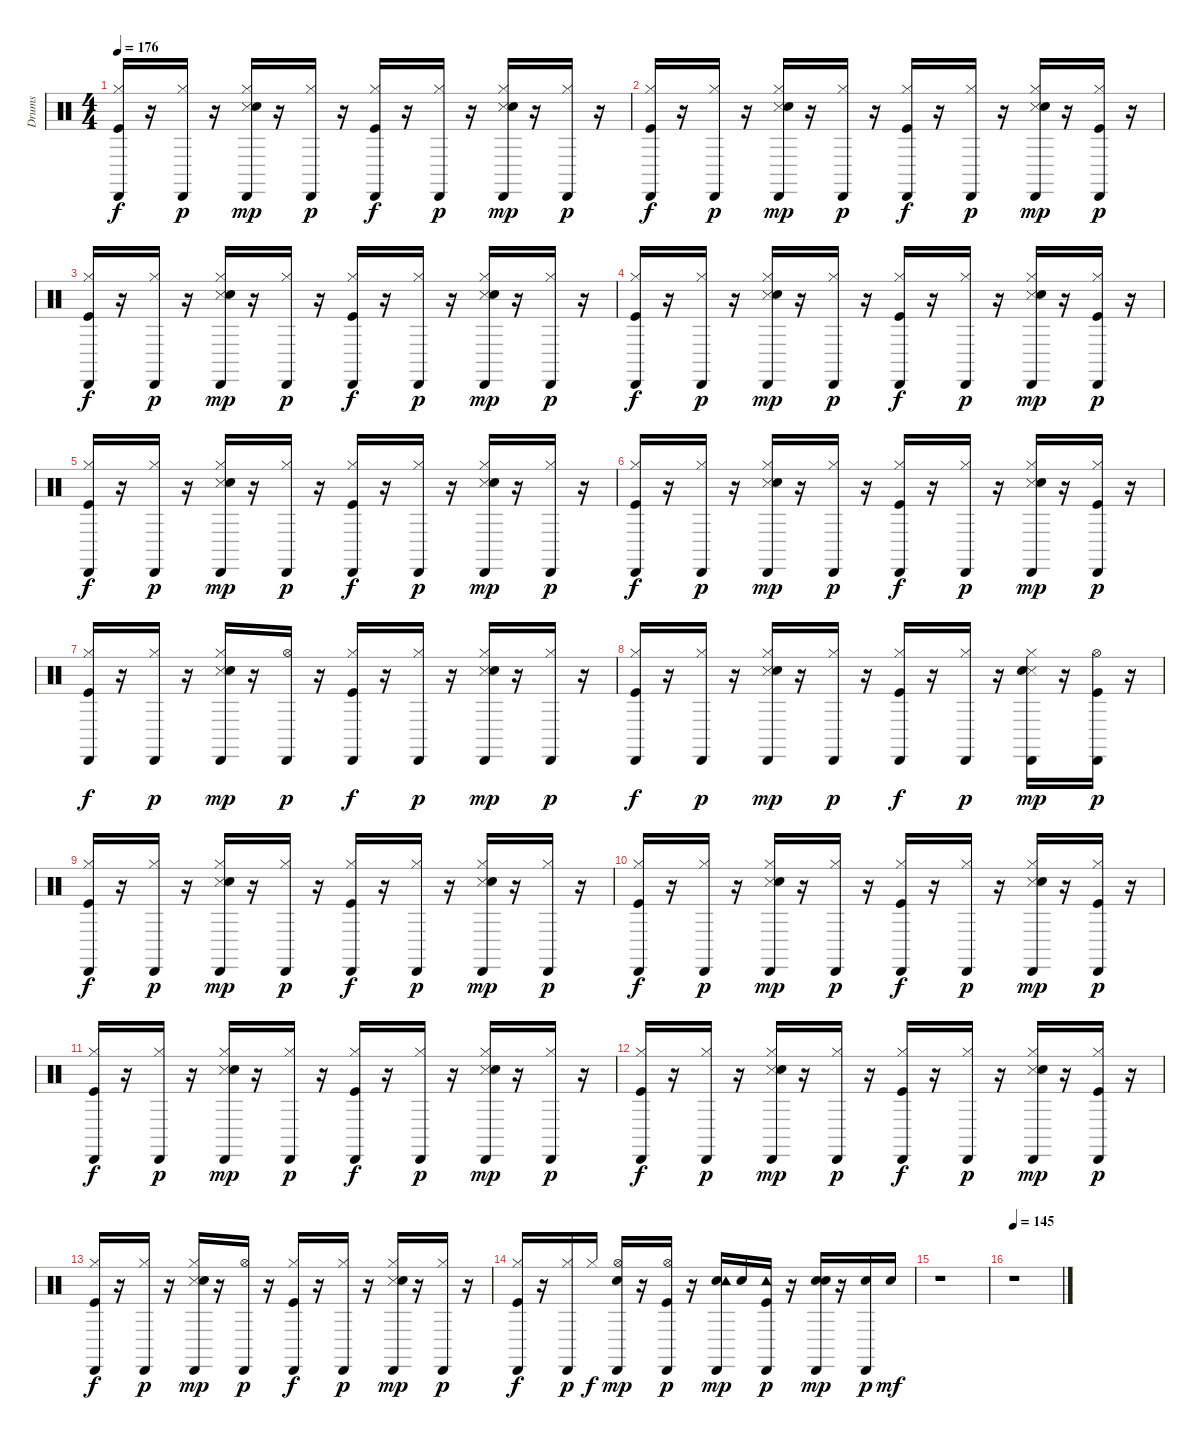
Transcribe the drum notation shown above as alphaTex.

\track ("Drums" "Drums") {instrument percussion}
\staff {score}
\articulation defaults
\ts (4 4)
\tempo 176
\clef neutral
\ks c
("Kick (hit)" "Hi-Hat (closed)" "Cabasa (hit)").16{dy f} r.16 ("Hi-Hat (closed)" "Cabasa (hit)").16{dy p} r.16 ("Hi-Hat (closed)" "Snare (side stick) 3" "Hand Clap (hit)" "Cabasa (hit)").16{dy mp} r.16 ("Hi-Hat (closed)" "Cabasa (hit)").16{dy p} r.16 ("Kick (hit)" "Hi-Hat (closed)" "Cabasa (hit)").16{dy f} r.16 ("Hi-Hat (closed)" "Cabasa (hit)").16{dy p} r.16 ("Hi-Hat (closed)" "Snare (side stick) 3" "Hand Clap (hit)" "Cabasa (hit)").16{dy mp} r.16 ("Hi-Hat (closed)" "Cabasa (hit)").16{dy p} r.16 |
("Kick (hit)" "Hi-Hat (closed)" "Cabasa (hit)").16{dy f} r.16 ("Hi-Hat (closed)" "Cabasa (hit)").16{dy p} r.16 ("Hi-Hat (closed)" "Snare (side stick) 3" "Hand Clap (hit)" "Cabasa (hit)").16{dy mp} r.16 ("Hi-Hat (closed)" "Cabasa (hit)").16{dy p} r.16 ("Kick (hit)" "Hi-Hat (closed)" "Cabasa (hit)").16{dy f} r.16 ("Hi-Hat (closed)" "Cabasa (hit)").16{dy p} r.16 ("Hi-Hat (closed)" "Snare (side stick) 3" "Hand Clap (hit)" "Cabasa (hit)").16{dy mp} r.16 ("Kick (hit)" "Hi-Hat (closed)" "Cabasa (hit)").16{dy p} r.16 |
("Kick (hit)" "Hi-Hat (closed)" "Cabasa (hit)").16{dy f} r.16 ("Hi-Hat (closed)" "Cabasa (hit)").16{dy p} r.16 ("Hi-Hat (closed)" "Snare (side stick) 3" "Hand Clap (hit)" "Cabasa (hit)").16{dy mp} r.16 ("Hi-Hat (closed)" "Cabasa (hit)").16{dy p} r.16 ("Kick (hit)" "Hi-Hat (closed)" "Cabasa (hit)").16{dy f} r.16 ("Hi-Hat (closed)" "Cabasa (hit)").16{dy p} r.16 ("Hi-Hat (closed)" "Snare (side stick) 3" "Hand Clap (hit)" "Cabasa (hit)").16{dy mp} r.16 ("Hi-Hat (closed)" "Cabasa (hit)").16{dy p} r.16 |
("Kick (hit)" "Hi-Hat (closed)" "Cabasa (hit)").16{dy f} r.16 ("Hi-Hat (closed)" "Cabasa (hit)").16{dy p} r.16 ("Hi-Hat (closed)" "Snare (side stick) 3" "Hand Clap (hit)" "Cabasa (hit)").16{dy mp} r.16 ("Hi-Hat (closed)" "Cabasa (hit)").16{dy p} r.16 ("Kick (hit)" "Hi-Hat (closed)" "Cabasa (hit)").16{dy f} r.16 ("Hi-Hat (closed)" "Cabasa (hit)").16{dy p} r.16 ("Hi-Hat (closed)" "Snare (side stick) 3" "Hand Clap (hit)" "Cabasa (hit)").16{dy mp} r.16 ("Kick (hit)" "Hi-Hat (closed)" "Cabasa (hit)").16{dy p} r.16 |
("Kick (hit)" "Hi-Hat (closed)" "Cabasa (hit)").16{dy f} r.16 ("Hi-Hat (closed)" "Cabasa (hit)").16{dy p} r.16 ("Hi-Hat (closed)" "Snare (side stick) 3" "Hand Clap (hit)" "Cabasa (hit)").16{dy mp} r.16 ("Hi-Hat (closed)" "Cabasa (hit)").16{dy p} r.16 ("Kick (hit)" "Hi-Hat (closed)" "Cabasa (hit)").16{dy f} r.16 ("Hi-Hat (closed)" "Cabasa (hit)").16{dy p} r.16 ("Hi-Hat (closed)" "Snare (side stick) 3" "Hand Clap (hit)" "Cabasa (hit)").16{dy mp} r.16 ("Hi-Hat (closed)" "Cabasa (hit)").16{dy p} r.16 |
("Kick (hit)" "Hi-Hat (closed)" "Cabasa (hit)").16{dy f} r.16 ("Hi-Hat (closed)" "Cabasa (hit)").16{dy p} r.16 ("Hi-Hat (closed)" "Snare (side stick) 3" "Hand Clap (hit)" "Cabasa (hit)").16{dy mp} r.16 ("Hi-Hat (closed)" "Cabasa (hit)").16{dy p} r.16 ("Kick (hit)" "Hi-Hat (closed)" "Cabasa (hit)").16{dy f} r.16 ("Hi-Hat (closed)" "Cabasa (hit)").16{dy p} r.16 ("Hi-Hat (closed)" "Snare (side stick) 3" "Hand Clap (hit)" "Cabasa (hit)").16{dy mp} r.16 ("Kick (hit)" "Hi-Hat (closed)" "Cabasa (hit)").16{dy p} r.16 |
("Kick (hit)" "Hi-Hat (closed)" "Cabasa (hit)").16{dy f} r.16 ("Hi-Hat (closed)" "Cabasa (hit)").16{dy p} r.16 ("Hi-Hat (closed)" "Snare (side stick) 3" "Hand Clap (hit)" "Cabasa (hit)").16{dy mp} r.16 ("Hi-Hat (open)" "Cabasa (hit)").16{dy p} r.16 ("Kick (hit)" "Hi-Hat (closed)" "Cabasa (hit)").16{dy f} r.16 ("Hi-Hat (closed)" "Cabasa (hit)").16{dy p} r.16 ("Hi-Hat (closed)" "Snare (side stick) 3" "Hand Clap (hit)" "Cabasa (hit)").16{dy mp} r.16 ("Hi-Hat (closed)" "Cabasa (hit)").16{dy p} r.16 |
("Kick (hit)" "Hi-Hat (closed)" "Cabasa (hit)").16{dy f} r.16 ("Hi-Hat (closed)" "Cabasa (hit)").16{dy p} r.16 ("Hi-Hat (closed)" "Snare (side stick) 3" "Hand Clap (hit)" "Cabasa (hit)").16{dy mp} r.16 ("Hi-Hat (closed)" "Cabasa (hit)").16{dy p} r.16 ("Kick (hit)" "Hi-Hat (closed)" "Cabasa (hit)").16{dy f} r.16 ("Hi-Hat (closed)" "Cabasa (hit)").16{dy p} r.16 ("Hi-Hat (closed)" "Snare (side stick) 3" "Hand Clap (hit)" "Cabasa (hit)").16{dy mp} r.16 ("Kick (hit)" "Hi-Hat (open)" "Cabasa (hit)").16{dy p} r.16 |
("Kick (hit)" "Hi-Hat (closed)" "Cabasa (hit)").16{dy f} r.16 ("Hi-Hat (closed)" "Cabasa (hit)").16{dy p} r.16 ("Hi-Hat (closed)" "Snare (side stick) 3" "Hand Clap (hit)" "Cabasa (hit)").16{dy mp} r.16 ("Hi-Hat (closed)" "Cabasa (hit)").16{dy p} r.16 ("Kick (hit)" "Hi-Hat (closed)" "Cabasa (hit)").16{dy f} r.16 ("Hi-Hat (closed)" "Cabasa (hit)").16{dy p} r.16 ("Hi-Hat (closed)" "Snare (side stick) 3" "Hand Clap (hit)" "Cabasa (hit)").16{dy mp} r.16 ("Hi-Hat (closed)" "Cabasa (hit)").16{dy p} r.16 |
("Kick (hit)" "Hi-Hat (closed)" "Cabasa (hit)").16{dy f} r.16 ("Hi-Hat (closed)" "Cabasa (hit)").16{dy p} r.16 ("Hi-Hat (closed)" "Snare (side stick) 3" "Hand Clap (hit)" "Cabasa (hit)").16{dy mp} r.16 ("Hi-Hat (closed)" "Cabasa (hit)").16{dy p} r.16 ("Kick (hit)" "Hi-Hat (closed)" "Cabasa (hit)").16{dy f} r.16 ("Hi-Hat (closed)" "Cabasa (hit)").16{dy p} r.16 ("Hi-Hat (closed)" "Snare (side stick) 3" "Hand Clap (hit)" "Cabasa (hit)").16{dy mp} r.16 ("Kick (hit)" "Hi-Hat (closed)" "Cabasa (hit)").16{dy p} r.16 |
("Kick (hit)" "Hi-Hat (closed)" "Cabasa (hit)").16{dy f} r.16 ("Hi-Hat (closed)" "Cabasa (hit)").16{dy p} r.16 ("Hi-Hat (closed)" "Snare (side stick) 3" "Hand Clap (hit)" "Cabasa (hit)").16{dy mp} r.16 ("Hi-Hat (closed)" "Cabasa (hit)").16{dy p} r.16 ("Kick (hit)" "Hi-Hat (closed)" "Cabasa (hit)").16{dy f} r.16 ("Hi-Hat (closed)" "Cabasa (hit)").16{dy p} r.16 ("Hi-Hat (closed)" "Snare (side stick) 3" "Hand Clap (hit)" "Cabasa (hit)").16{dy mp} r.16 ("Hi-Hat (closed)" "Cabasa (hit)").16{dy p} r.16 |
("Kick (hit)" "Hi-Hat (closed)" "Cabasa (hit)").16{dy f} r.16 ("Hi-Hat (closed)" "Cabasa (hit)").16{dy p} r.16 ("Hi-Hat (closed)" "Snare (side stick) 3" "Hand Clap (hit)" "Cabasa (hit)").16{dy mp} r.16 ("Hi-Hat (closed)" "Cabasa (hit)").16{dy p} r.16 ("Kick (hit)" "Hi-Hat (closed)" "Cabasa (hit)").16{dy f} r.16 ("Hi-Hat (closed)" "Cabasa (hit)").16{dy p} r.16 ("Hi-Hat (closed)" "Snare (side stick) 3" "Hand Clap (hit)" "Cabasa (hit)").16{dy mp} r.16 ("Kick (hit)" "Hi-Hat (closed)" "Cabasa (hit)").16{dy p} r.16 |
("Kick (hit)" "Hi-Hat (closed)" "Cabasa (hit)").16{dy f} r.16 ("Hi-Hat (closed)" "Cabasa (hit)").16{dy p} r.16 ("Hi-Hat (closed)" "Snare (side stick) 3" "Hand Clap (hit)" "Cabasa (hit)").16{dy mp} r.16 ("Hi-Hat (open)" "Cabasa (hit)").16{dy p} r.16 ("Kick (hit)" "Hi-Hat (closed)" "Cabasa (hit)").16{dy f} r.16 ("Hi-Hat (closed)" "Cabasa (hit)").16{dy p} r.16 ("Hi-Hat (closed)" "Snare (side stick) 3" "Hand Clap (hit)" "Cabasa (hit)").16{dy mp} r.16 ("Hi-Hat (closed)" "Cabasa (hit)").16{dy p} r.16 |
("Kick (hit)" "Hi-Hat (closed)" "Cabasa (hit)").16{dy f} r.16 ("Hi-Hat (closed)" "Cabasa (hit)").16{dy p} "Hi-Hat (closed)".16{dy f} ("Hi-Hat (open)" "Hand Clap (hit)" "Cabasa (hit)").16{dy mp} r.16 ("Kick (hit)" "Hi-Hat (open)" "Cabasa (hit)").16{dy p} r.16 ("Snare (hit) 2" "Tambourine (hit)" "Cabasa (hit)").16{dy mp} "Snare (hit) 2".16 ("Kick (hit)" "Tambourine (hit)" "Cabasa (hit)").16{dy p} r.16 ("Snare (hit) 2" "Hand Clap (hit)" "Cabasa (hit)").16{dy mp} r.16 ("Snare (hit) 2" "Cabasa (hit)").16{dy p} "Snare (hit) 2".16{dy mf} |
r.1 |
\tempo 145
r.1
